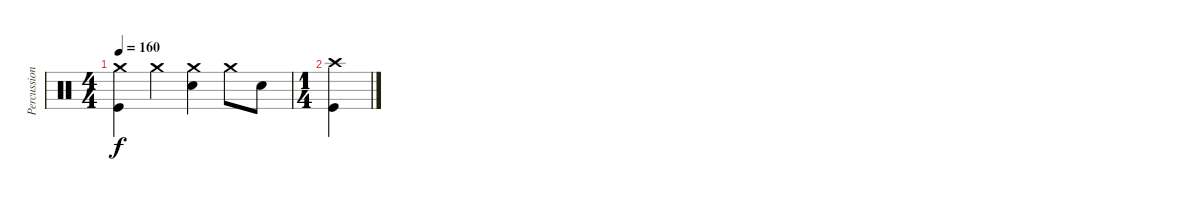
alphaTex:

\track ("Percussion" "Percussion") {instrument percussion}
\staff {score}
\articulation defaults
\ts (4 4)
\tempo 160
\clef neutral
\ks c
("Kick (hit)" "Crash medium (hit)").4{dy f} "Crash medium (hit)".4 ("Snare (hit) 2" "Crash medium (hit)").4 "Crash medium (hit)".8 "Snare (hit) 2".8 |
\ts (1 4)
("Kick (hit)" "Crash high (hit)").4
